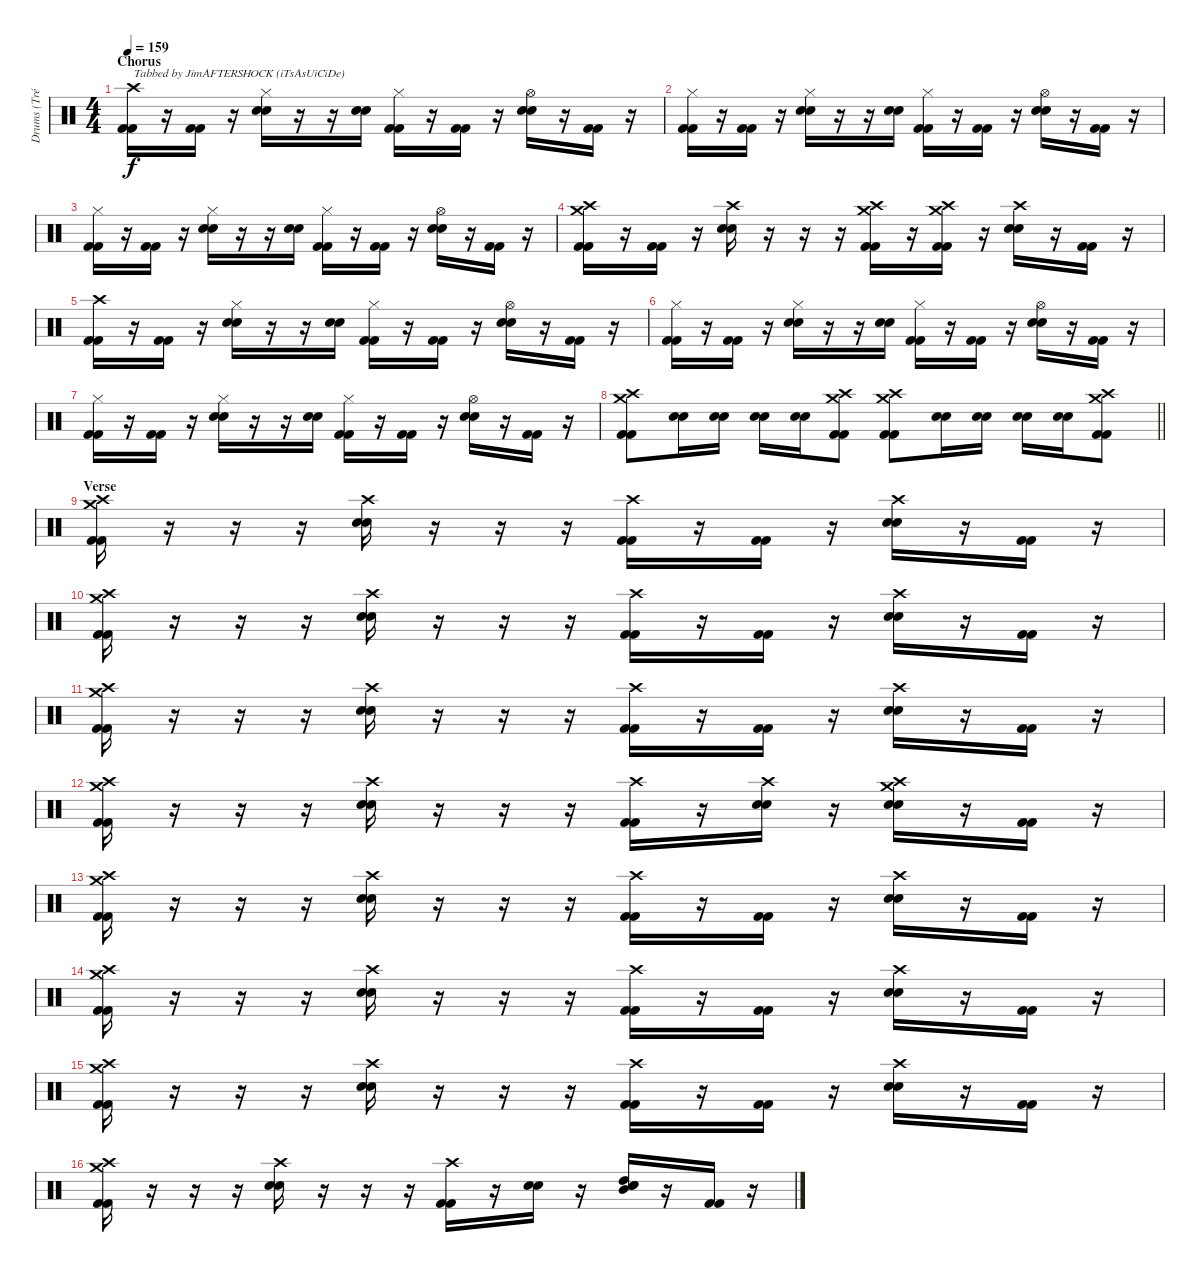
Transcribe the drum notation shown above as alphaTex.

\track ("Drums (Tré Cool)" "Drums (Tré") {instrument percussion}
\staff {score}
\articulation defaults
\ts (4 4)
\section ("" "Chorus")
\tempo 159
\clef neutral
\ks c
("Crash high (hit)" "Kick (hit) 2" "Kick (hit) 2").16{txt "Tabbed by JimAFTERSHOCK (iTsAsUiCiDe)" dy f} r.16 ("Kick (hit) 2" "Kick (hit) 2").16 r.16 ("Hi-Hat (closed)" "Snare (hit) 2" "Snare (hit) 2").16 r.16 r.16 ("Snare (hit) 2" "Snare (hit) 2").16 ("Hi-Hat (closed)" "Kick (hit) 2" "Kick (hit) 2").16 r.16 ("Kick (hit) 2" "Kick (hit) 2").16 r.16 ("Hi-Hat (open)" "Snare (hit) 2" "Snare (hit) 2").16 r.16 ("Kick (hit) 2" "Kick (hit) 2").16 r.16 |
("Hi-Hat (closed)" "Kick (hit) 2" "Kick (hit) 2").16 r.16 ("Kick (hit) 2" "Kick (hit) 2").16 r.16 ("Hi-Hat (closed)" "Snare (hit) 2" "Snare (hit) 2").16 r.16 r.16 ("Snare (hit) 2" "Snare (hit) 2").16 ("Hi-Hat (closed)" "Kick (hit) 2" "Kick (hit) 2").16 r.16 ("Kick (hit) 2" "Kick (hit) 2").16 r.16 ("Hi-Hat (open)" "Snare (hit) 2" "Snare (hit) 2").16 r.16 ("Kick (hit) 2" "Kick (hit) 2").16 r.16 |
("Hi-Hat (closed)" "Kick (hit) 2" "Kick (hit) 2").16 r.16 ("Kick (hit) 2" "Kick (hit) 2").16 r.16 ("Hi-Hat (closed)" "Snare (hit) 2" "Snare (hit) 2").16 r.16 r.16 ("Snare (hit) 2" "Snare (hit) 2").16 ("Hi-Hat (closed)" "Kick (hit) 2" "Kick (hit) 2").16 r.16 ("Kick (hit) 2" "Kick (hit) 2").16 r.16 ("Hi-Hat (open)" "Snare (hit) 2" "Snare (hit) 2").16 r.16 ("Kick (hit) 2" "Kick (hit) 2").16 r.16 |
("Crash high (hit)" "Crash medium (hit)" "Kick (hit) 2" "Kick (hit) 2").16 r.16 ("Kick (hit) 2" "Kick (hit) 2").16 r.16 ("Crash high (hit)" "Snare (hit) 2" "Snare (hit) 2").16 r.16 r.16 r.16 ("Crash medium (hit)" "Crash high (hit)" "Kick (hit) 2" "Kick (hit) 2").16 r.16 ("Crash medium (hit)" "Crash high (hit)" "Kick (hit) 2" "Kick (hit) 2").16 r.16 ("Crash high (hit)" "Snare (hit) 2" "Snare (hit) 2").16 r.16 ("Kick (hit) 2" "Kick (hit) 2").16 r.16 |
("Crash high (hit)" "Kick (hit) 2" "Kick (hit) 2").16 r.16 ("Kick (hit) 2" "Kick (hit) 2").16 r.16 ("Hi-Hat (closed)" "Snare (hit) 2" "Snare (hit) 2").16 r.16 r.16 ("Snare (hit) 2" "Snare (hit) 2").16 ("Hi-Hat (closed)" "Kick (hit) 2" "Kick (hit) 2").16 r.16 ("Kick (hit) 2" "Kick (hit) 2").16 r.16 ("Hi-Hat (open)" "Snare (hit) 2" "Snare (hit) 2").16 r.16 ("Kick (hit) 2" "Kick (hit) 2").16 r.16 |
("Hi-Hat (closed)" "Kick (hit) 2" "Kick (hit) 2").16 r.16 ("Kick (hit) 2" "Kick (hit) 2").16 r.16 ("Hi-Hat (closed)" "Snare (hit) 2" "Snare (hit) 2").16 r.16 r.16 ("Snare (hit) 2" "Snare (hit) 2").16 ("Hi-Hat (closed)" "Kick (hit) 2" "Kick (hit) 2").16 r.16 ("Kick (hit) 2" "Kick (hit) 2").16 r.16 ("Hi-Hat (open)" "Snare (hit) 2" "Snare (hit) 2").16 r.16 ("Kick (hit) 2" "Kick (hit) 2").16 r.16 |
("Hi-Hat (closed)" "Kick (hit) 2" "Kick (hit) 2").16 r.16 ("Kick (hit) 2" "Kick (hit) 2").16 r.16 ("Hi-Hat (closed)" "Snare (hit) 2" "Snare (hit) 2").16 r.16 r.16 ("Snare (hit) 2" "Snare (hit) 2").16 ("Hi-Hat (closed)" "Kick (hit) 2" "Kick (hit) 2").16 r.16 ("Kick (hit) 2" "Kick (hit) 2").16 r.16 ("Hi-Hat (open)" "Snare (hit) 2" "Snare (hit) 2").16 r.16 ("Kick (hit) 2" "Kick (hit) 2").16 r.16 |
\barLineRight lightlight
("Crash medium (hit)" "Crash high (hit)" "Kick (hit) 2" "Kick (hit) 2").8 ("Snare (hit) 2" "Snare (hit) 2").16 ("Snare (hit) 2" "Snare (hit) 2").16 ("Snare (hit) 2" "Snare (hit) 2").16 ("Snare (hit) 2" "Snare (hit) 2").16 ("Crash high (hit)" "Crash medium (hit)" "Kick (hit) 2" "Kick (hit) 2").8 ("Crash medium (hit)" "Crash high (hit)" "Kick (hit) 2" "Kick (hit) 2").8 ("Snare (hit) 2" "Snare (hit) 2").16 ("Snare (hit) 2" "Snare (hit) 2").16 ("Snare (hit) 2" "Snare (hit) 2").16 ("Snare (hit) 2" "Snare (hit) 2").16 ("Crash medium (hit)" "Crash high (hit)" "Kick (hit) 2" "Kick (hit) 2").8 |
\section ("" "Verse")
("Crash high (hit)" "Crash medium (hit)" "Kick (hit) 2" "Kick (hit) 2").16 r.16 r.16 r.16 ("Crash high (hit)" "Snare (hit) 2" "Snare (hit) 2").16 r.16 r.16 r.16 ("Crash high (hit)" "Kick (hit) 2" "Kick (hit) 2").16 r.16 ("Kick (hit) 2" "Kick (hit) 2").16 r.16 ("Crash high (hit)" "Snare (hit) 2" "Snare (hit) 2").16 r.16 ("Kick (hit) 2" "Kick (hit) 2").16 r.16 |
("Crash high (hit)" "Crash medium (hit)" "Kick (hit) 2" "Kick (hit) 2").16 r.16 r.16 r.16 ("Crash high (hit)" "Snare (hit) 2" "Snare (hit) 2").16 r.16 r.16 r.16 ("Crash high (hit)" "Kick (hit) 2" "Kick (hit) 2").16 r.16 ("Kick (hit) 2" "Kick (hit) 2").16 r.16 ("Crash high (hit)" "Snare (hit) 2" "Snare (hit) 2").16 r.16 ("Kick (hit) 2" "Kick (hit) 2").16 r.16 |
("Crash high (hit)" "Crash medium (hit)" "Kick (hit) 2" "Kick (hit) 2").16 r.16 r.16 r.16 ("Crash high (hit)" "Snare (hit) 2" "Snare (hit) 2").16 r.16 r.16 r.16 ("Crash high (hit)" "Kick (hit) 2" "Kick (hit) 2").16 r.16 ("Kick (hit) 2" "Kick (hit) 2").16 r.16 ("Crash high (hit)" "Snare (hit) 2" "Snare (hit) 2").16 r.16 ("Kick (hit) 2" "Kick (hit) 2").16 r.16 |
("Crash high (hit)" "Crash medium (hit)" "Kick (hit) 2" "Kick (hit) 2").16 r.16 r.16 r.16 ("Crash high (hit)" "Snare (hit) 2" "Snare (hit) 2").16 r.16 r.16 r.16 ("Crash high (hit)" "Kick (hit) 2" "Kick (hit) 2").16 r.16 ("Crash high (hit)" "Snare (hit) 2" "Snare (hit) 2").16 r.16 ("Crash high (hit)" "Crash medium (hit)" "Snare (hit) 2" "Snare (hit) 2").16 r.16 ("Kick (hit) 2" "Kick (hit) 2").16 r.16 |
("Crash high (hit)" "Crash medium (hit)" "Kick (hit) 2" "Kick (hit) 2").16 r.16 r.16 r.16 ("Crash high (hit)" "Snare (hit) 2" "Snare (hit) 2").16 r.16 r.16 r.16 ("Crash high (hit)" "Kick (hit) 2" "Kick (hit) 2").16 r.16 ("Kick (hit) 2" "Kick (hit) 2").16 r.16 ("Crash high (hit)" "Snare (hit) 2" "Snare (hit) 2").16 r.16 ("Kick (hit) 2" "Kick (hit) 2").16 r.16 |
("Crash high (hit)" "Crash medium (hit)" "Kick (hit) 2" "Kick (hit) 2").16 r.16 r.16 r.16 ("Crash high (hit)" "Snare (hit) 2" "Snare (hit) 2").16 r.16 r.16 r.16 ("Crash high (hit)" "Kick (hit) 2" "Kick (hit) 2").16 r.16 ("Kick (hit) 2" "Kick (hit) 2").16 r.16 ("Crash high (hit)" "Snare (hit) 2" "Snare (hit) 2").16 r.16 ("Kick (hit) 2" "Kick (hit) 2").16 r.16 |
("Crash high (hit)" "Crash medium (hit)" "Kick (hit) 2" "Kick (hit) 2").16 r.16 r.16 r.16 ("Crash high (hit)" "Snare (hit) 2" "Snare (hit) 2").16 r.16 r.16 r.16 ("Crash high (hit)" "Kick (hit) 2" "Kick (hit) 2").16 r.16 ("Kick (hit) 2" "Kick (hit) 2").16 r.16 ("Crash high (hit)" "Snare (hit) 2" "Snare (hit) 2").16 r.16 ("Kick (hit) 2" "Kick (hit) 2").16 r.16 |
("Crash high (hit)" "Crash medium (hit)" "Kick (hit) 2" "Kick (hit) 2").16 r.16 r.16 r.16 ("Crash high (hit)" "Snare (hit) 2" "Snare (hit) 2").16 r.16 r.16 r.16 ("Crash high (hit)" "Kick (hit) 2" "Kick (hit) 2").16 r.16 ("Snare (hit) 2" "Snare (hit) 2").16 r.16 ("High Tom (hit)" "Mid Tom (hit)" "Snare (hit) 2" "Snare (hit) 2").16 r.16 ("Kick (hit) 2" "Kick (hit) 2").16 r.16
